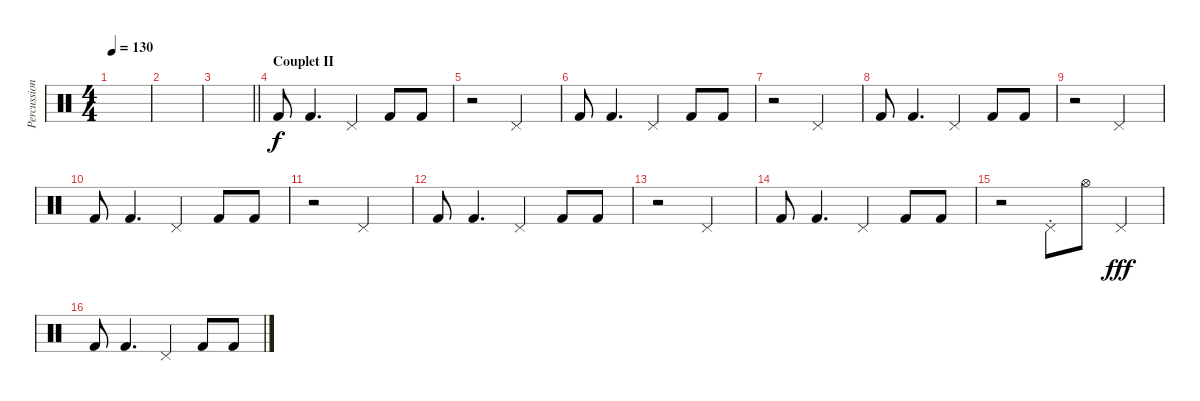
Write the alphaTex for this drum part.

\track ("Percussions" "Percussion") {instrument percussion}
\staff {score}
\articulation defaults
\ts (4 4)
\tempo 130
\clef neutral
\ks c
|
|
\barLineRight lightlight
|
\section ("" "Couplet II")
"Kick (hit) 2".8 "Kick (hit) 2".4{d} "Pedal Hi-Hat (hit)".4 "Kick (hit) 2".8 "Kick (hit) 2".8 |
r.2 "Pedal Hi-Hat (hit)".2 |
"Kick (hit) 2".8 "Kick (hit) 2".4{d} "Pedal Hi-Hat (hit)".4 "Kick (hit) 2".8 "Kick (hit) 2".8 |
r.2 "Pedal Hi-Hat (hit)".2 |
"Kick (hit) 2".8 "Kick (hit) 2".4{d} "Pedal Hi-Hat (hit)".4 "Kick (hit) 2".8 "Kick (hit) 2".8 |
r.2 "Pedal Hi-Hat (hit)".2 |
"Kick (hit) 2".8 "Kick (hit) 2".4{d} "Pedal Hi-Hat (hit)".4 "Kick (hit) 2".8 "Kick (hit) 2".8 |
r.2 "Pedal Hi-Hat (hit)".2 |
"Kick (hit) 2".8 "Kick (hit) 2".4{d} "Pedal Hi-Hat (hit)".4 "Kick (hit) 2".8 "Kick (hit) 2".8 |
r.2 "Pedal Hi-Hat (hit)".2 |
"Kick (hit) 2".8 "Kick (hit) 2".4{d} "Pedal Hi-Hat (hit)".4 "Kick (hit) 2".8 "Kick (hit) 2".8 |
r.2 "Pedal Hi-Hat (hit)"{st}.8 "Hi-Hat (open)".8{dy f} "Pedal Hi-Hat (hit)".4{dy fff} |
"Kick (hit) 2".8 "Kick (hit) 2".4{d} "Pedal Hi-Hat (hit)".4 "Kick (hit) 2".8 "Kick (hit) 2".8
